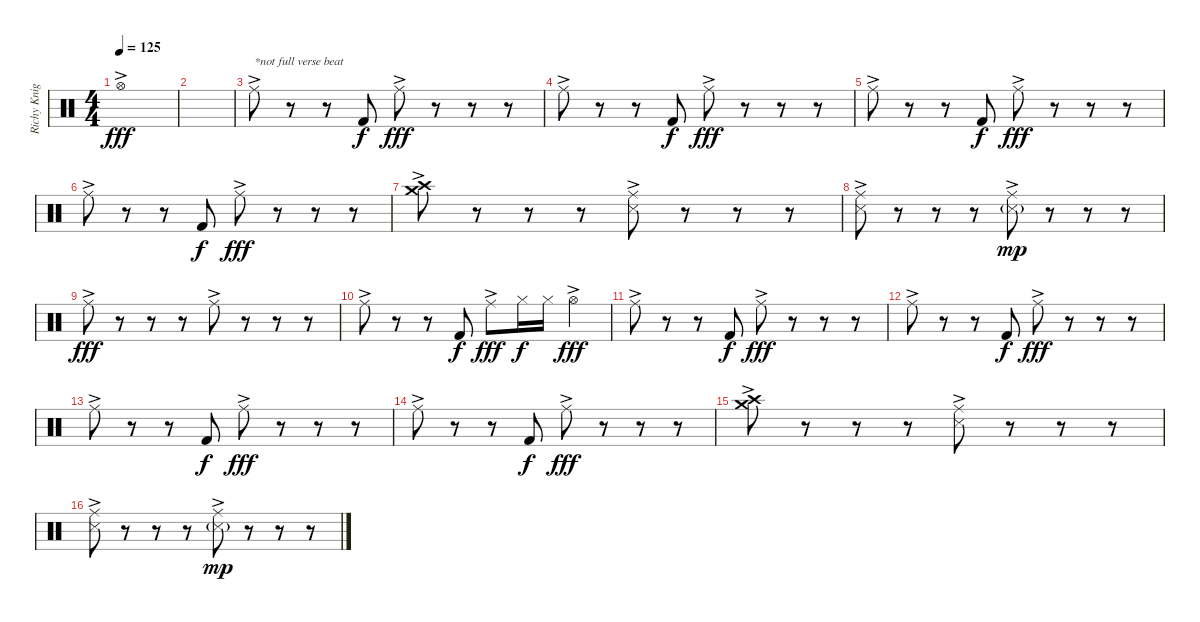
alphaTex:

\track ("Richy Knight" "Richy Knig") {instrument percussion}
\staff {score}
\articulation defaults
\ts (4 4)
\tempo 125
\clef neutral
\ks c "Hi-Hat (open)"{ac}.1{dy fff}
|
|
"Ride (middle)"{ac}.8{txt "*not full verse beat"} r.8 r.8 "Kick (hit) 2".8{dy f} "Ride (middle)"{ac}.8{dy fff} r.8 r.8 r.8 |
"Ride (middle)"{ac}.8 r.8 r.8 "Kick (hit) 2".8{dy f} "Ride (middle)"{ac}.8{dy fff} r.8 r.8 r.8 |
"Ride (middle)"{ac}.8 r.8 r.8 "Kick (hit) 2".8{dy f} "Ride (middle)"{ac}.8{dy fff} r.8 r.8 r.8 |
"Ride (middle)"{ac}.8 r.8 r.8 "Kick (hit) 2".8{dy f} "Ride (middle)"{ac}.8{dy fff} r.8 r.8 r.8 |
("Crash high (hit)"{ac} "Crash medium (hit)"{ac}).8 r.8 r.8 r.8 ("Ride (middle)"{ac} "Snare (side stick) 3"{ac}).8 r.8 r.8 r.8 |
("Ride (middle)"{ac} "Snare (side stick) 3").8 r.8 r.8 r.8 ("Ride (middle)"{ac} "Snare (side stick) 3"{g}).8{dy mp} r.8 r.8 r.8 |
"Ride (middle)"{ac}.8{dy fff} r.8 r.8 r.8 "Ride (middle)"{ac}.8 r.8 r.8 r.8 |
"Ride (middle)"{ac}.8 r.8 r.8 "Kick (hit) 2".8{dy f} "Ride (middle)"{ac}.8{dy fff} "Hi-Hat (closed)".16{dy f} "Hi-Hat (closed)".16 "Hi-Hat (open)"{ac}.4{dy fff} |
"Ride (middle)"{ac}.8 r.8 r.8 "Kick (hit) 2".8{dy f} "Ride (middle)"{ac}.8{dy fff} r.8 r.8 r.8 |
"Ride (middle)"{ac}.8 r.8 r.8 "Kick (hit) 2".8{dy f} "Ride (middle)"{ac}.8{dy fff} r.8 r.8 r.8 |
"Ride (middle)"{ac}.8 r.8 r.8 "Kick (hit) 2".8{dy f} "Ride (middle)"{ac}.8{dy fff} r.8 r.8 r.8 |
"Ride (middle)"{ac}.8 r.8 r.8 "Kick (hit) 2".8{dy f} "Ride (middle)"{ac}.8{dy fff} r.8 r.8 r.8 |
("Crash high (hit)"{ac} "Crash medium (hit)"{ac}).8 r.8 r.8 r.8 ("Ride (middle)"{ac} "Snare (side stick) 3"{ac}).8 r.8 r.8 r.8 |
("Ride (middle)"{ac} "Snare (side stick) 3").8 r.8 r.8 r.8 ("Ride (middle)"{ac} "Snare (side stick) 3"{g}).8{dy mp} r.8 r.8 r.8
